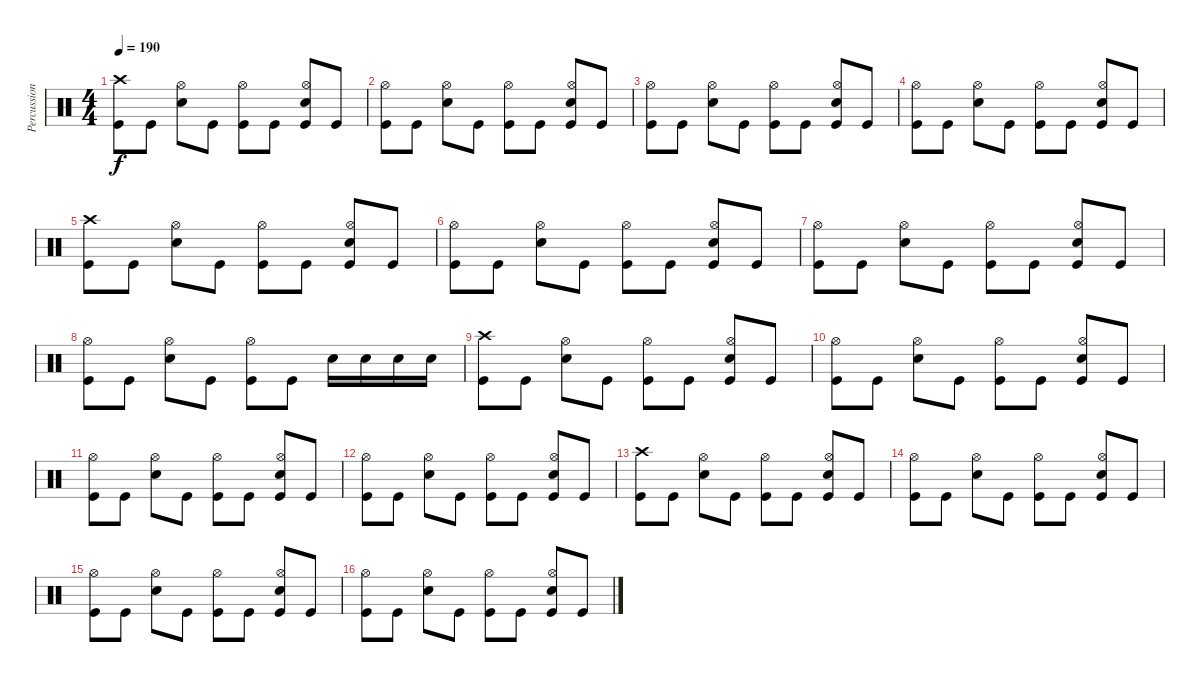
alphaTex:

\track ("Percussion" "Percussion") {instrument percussion}
\staff {score}
\articulation defaults
\ts (4 4)
\tempo 190
\clef neutral
\ks c
("Crash high (hit)" "Kick (hit)").8{dy f} "Kick (hit)".8 ("Hi-Hat (open)" "Snare (hit) 2").8 "Kick (hit)".8 ("Hi-Hat (open)" "Kick (hit)").8 "Kick (hit)".8 ("Hi-Hat (open)" "Snare (hit) 2" "Kick (hit)").8 "Kick (hit)".8 |
("Hi-Hat (open)" "Kick (hit)").8 "Kick (hit)".8 ("Hi-Hat (open)" "Snare (hit) 2").8 "Kick (hit)".8 ("Hi-Hat (open)" "Kick (hit)").8 "Kick (hit)".8 ("Hi-Hat (open)" "Snare (hit) 2" "Kick (hit)").8 "Kick (hit)".8 |
("Hi-Hat (open)" "Kick (hit)").8 "Kick (hit)".8 ("Hi-Hat (open)" "Snare (hit) 2").8 "Kick (hit)".8 ("Hi-Hat (open)" "Kick (hit)").8 "Kick (hit)".8 ("Hi-Hat (open)" "Snare (hit) 2" "Kick (hit)").8 "Kick (hit)".8 |
("Hi-Hat (open)" "Kick (hit)").8 "Kick (hit)".8 ("Hi-Hat (open)" "Snare (hit) 2").8 "Kick (hit)".8 ("Hi-Hat (open)" "Kick (hit)").8 "Kick (hit)".8 ("Hi-Hat (open)" "Snare (hit) 2" "Kick (hit)").8 "Kick (hit)".8 |
("Crash high (hit)" "Kick (hit)").8 "Kick (hit)".8 ("Hi-Hat (open)" "Snare (hit) 2").8 "Kick (hit)".8 ("Hi-Hat (open)" "Kick (hit)").8 "Kick (hit)".8 ("Hi-Hat (open)" "Snare (hit) 2" "Kick (hit)").8 "Kick (hit)".8 |
("Hi-Hat (open)" "Kick (hit)").8 "Kick (hit)".8 ("Hi-Hat (open)" "Snare (hit) 2").8 "Kick (hit)".8 ("Hi-Hat (open)" "Kick (hit)").8 "Kick (hit)".8 ("Hi-Hat (open)" "Snare (hit) 2" "Kick (hit)").8 "Kick (hit)".8 |
("Hi-Hat (open)" "Kick (hit)").8 "Kick (hit)".8 ("Hi-Hat (open)" "Snare (hit) 2").8 "Kick (hit)".8 ("Hi-Hat (open)" "Kick (hit)").8 "Kick (hit)".8 ("Hi-Hat (open)" "Snare (hit) 2" "Kick (hit)").8 "Kick (hit)".8 |
("Hi-Hat (open)" "Kick (hit)").8 "Kick (hit)".8 ("Hi-Hat (open)" "Snare (hit) 2").8 "Kick (hit)".8 ("Hi-Hat (open)" "Kick (hit)").8 "Kick (hit)".8 "Snare (hit) 2".16 "Snare (hit) 2".16 "Snare (hit) 2".16 "Snare (hit) 2".16 |
("Crash high (hit)" "Kick (hit)").8 "Kick (hit)".8 ("Hi-Hat (open)" "Snare (hit) 2").8 "Kick (hit)".8 ("Hi-Hat (open)" "Kick (hit)").8 "Kick (hit)".8 ("Hi-Hat (open)" "Snare (hit) 2" "Kick (hit)").8 "Kick (hit)".8 |
("Hi-Hat (open)" "Kick (hit)").8 "Kick (hit)".8 ("Hi-Hat (open)" "Snare (hit) 2").8 "Kick (hit)".8 ("Hi-Hat (open)" "Kick (hit)").8 "Kick (hit)".8 ("Hi-Hat (open)" "Snare (hit) 2" "Kick (hit)").8 "Kick (hit)".8 |
("Hi-Hat (open)" "Kick (hit)").8 "Kick (hit)".8 ("Hi-Hat (open)" "Snare (hit) 2").8 "Kick (hit)".8 ("Hi-Hat (open)" "Kick (hit)").8 "Kick (hit)".8 ("Hi-Hat (open)" "Snare (hit) 2" "Kick (hit)").8 "Kick (hit)".8 |
("Hi-Hat (open)" "Kick (hit)").8 "Kick (hit)".8 ("Hi-Hat (open)" "Snare (hit) 2").8 "Kick (hit)".8 ("Hi-Hat (open)" "Kick (hit)").8 "Kick (hit)".8 ("Hi-Hat (open)" "Snare (hit) 2" "Kick (hit)").8 "Kick (hit)".8 |
("Crash high (hit)" "Kick (hit)").8 "Kick (hit)".8 ("Hi-Hat (open)" "Snare (hit) 2").8 "Kick (hit)".8 ("Hi-Hat (open)" "Kick (hit)").8 "Kick (hit)".8 ("Hi-Hat (open)" "Snare (hit) 2" "Kick (hit)").8 "Kick (hit)".8 |
("Hi-Hat (open)" "Kick (hit)").8 "Kick (hit)".8 ("Hi-Hat (open)" "Snare (hit) 2").8 "Kick (hit)".8 ("Hi-Hat (open)" "Kick (hit)").8 "Kick (hit)".8 ("Hi-Hat (open)" "Snare (hit) 2" "Kick (hit)").8 "Kick (hit)".8 |
("Hi-Hat (open)" "Kick (hit)").8 "Kick (hit)".8 ("Hi-Hat (open)" "Snare (hit) 2").8 "Kick (hit)".8 ("Hi-Hat (open)" "Kick (hit)").8 "Kick (hit)".8 ("Hi-Hat (open)" "Snare (hit) 2" "Kick (hit)").8 "Kick (hit)".8 |
("Hi-Hat (open)" "Kick (hit)").8 "Kick (hit)".8 ("Hi-Hat (open)" "Snare (hit) 2").8 "Kick (hit)".8 ("Hi-Hat (open)" "Kick (hit)").8 "Kick (hit)".8 ("Hi-Hat (open)" "Snare (hit) 2" "Kick (hit)").8 "Kick (hit)".8
